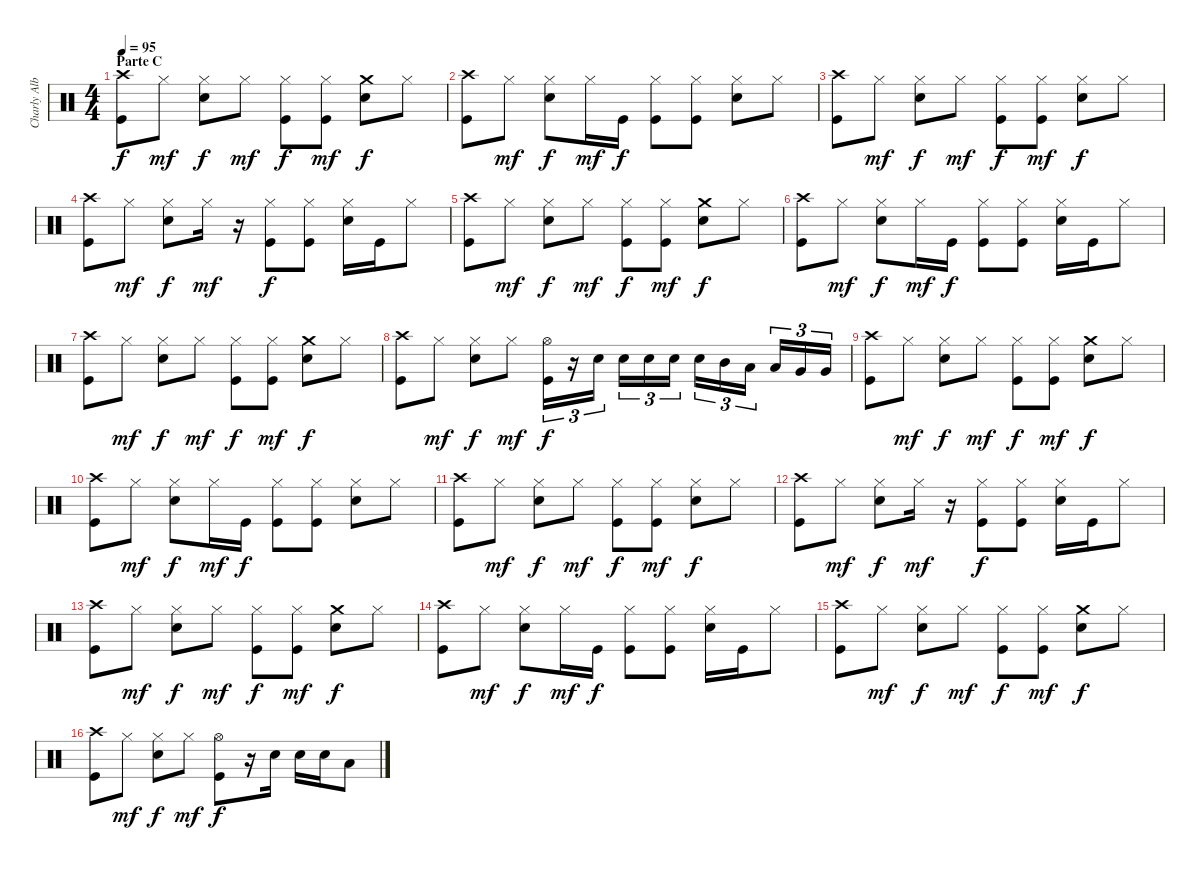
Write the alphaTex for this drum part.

\track ("Charly Alberti BATERIA" "Charly Alb") {instrument percussion}
\staff {score}
\articulation defaults
\ts (4 4)
\section ("" "Parte C")
\tempo 95
\clef neutral
\ks c
("Kick (hit)" "Crash high (hit)").8{dy f} "Hi-Hat (closed)".8{dy mf} ("Electric Snare (hit)" "Hi-Hat (closed)").8{dy f} "Hi-Hat (closed)".8{dy mf} ("Kick (hit)" "Hi-Hat (closed)").8{dy f} ("Kick (hit)" "Hi-Hat (closed)").8{dy mf} ("Electric Snare (hit)" "Crash medium (hit)").8{dy f} "Hi-Hat (closed)".8 |
("Kick (hit)" "Crash high (hit)").8 "Hi-Hat (closed)".8{dy mf} ("Electric Snare (hit)" "Hi-Hat (closed)").8{dy f} "Hi-Hat (closed)".16{dy mf} "Kick (hit)".16{dy f} ("Kick (hit)" "Hi-Hat (closed)").8 ("Kick (hit)" "Hi-Hat (closed)").8 ("Electric Snare (hit)" "Hi-Hat (closed)").8 "Hi-Hat (closed)".8 |
("Kick (hit)" "Crash high (hit)").8 "Hi-Hat (closed)".8{dy mf} ("Electric Snare (hit)" "Hi-Hat (closed)").8{dy f} "Hi-Hat (closed)".8{dy mf} ("Kick (hit)" "Hi-Hat (closed)").8{dy f} ("Kick (hit)" "Hi-Hat (closed)").8{dy mf} ("Electric Snare (hit)" "Hi-Hat (closed)").8{dy f} "Hi-Hat (closed)".8 |
("Kick (hit)" "Crash high (hit)").8 "Hi-Hat (closed)".8{dy mf} ("Electric Snare (hit)" "Hi-Hat (closed)").8{dy f} "Hi-Hat (closed)".16{dy mf} r.16 ("Kick (hit)" "Hi-Hat (closed)").8{dy f} ("Kick (hit)" "Hi-Hat (closed)").8 ("Electric Snare (hit)" "Hi-Hat (closed)").16 "Kick (hit)".16 "Hi-Hat (closed)".8 |
("Kick (hit)" "Crash high (hit)").8 "Hi-Hat (closed)".8{dy mf} ("Electric Snare (hit)" "Hi-Hat (closed)").8{dy f} "Hi-Hat (closed)".8{dy mf} ("Kick (hit)" "Hi-Hat (closed)").8{dy f} ("Kick (hit)" "Hi-Hat (closed)").8{dy mf} ("Electric Snare (hit)" "Crash medium (hit)").8{dy f} "Hi-Hat (closed)".8 |
("Kick (hit)" "Crash high (hit)").8 "Hi-Hat (closed)".8{dy mf} ("Electric Snare (hit)" "Hi-Hat (closed)").8{dy f} "Hi-Hat (closed)".16{dy mf} "Kick (hit)".16{dy f} ("Kick (hit)" "Hi-Hat (closed)").8 ("Kick (hit)" "Hi-Hat (closed)").8 ("Electric Snare (hit)" "Hi-Hat (closed)").16 "Kick (hit)".16 "Hi-Hat (closed)".8 |
("Kick (hit)" "Crash high (hit)").8 "Hi-Hat (closed)".8{dy mf} ("Electric Snare (hit)" "Hi-Hat (closed)").8{dy f} "Hi-Hat (closed)".8{dy mf} ("Kick (hit)" "Hi-Hat (closed)").8{dy f} ("Kick (hit)" "Hi-Hat (closed)").8{dy mf} ("Electric Snare (hit)" "Crash medium (hit)").8{dy f} "Hi-Hat (closed)".8 |
("Kick (hit)" "Crash high (hit)").8 "Hi-Hat (closed)".8{dy mf} ("Electric Snare (hit)" "Hi-Hat (closed)").8{dy f} "Hi-Hat (closed)".8{dy mf} ("Kick (hit)" "Hi-Hat (open)").16{tu (3 2) dy f} r.16{tu (3 2)} "Electric Snare (hit)".16{tu (3 2)} "Electric Snare (hit)".16{tu (3 2)} "Electric Snare (hit)".16{tu (3 2)} "Electric Snare (hit)".16{tu (3 2)} "Electric Snare (hit)".16{tu (3 2)} "Mid Tom (hit)".16{tu (3 2)} "Low Tom (hit)".16{tu (3 2)} "Low Tom (hit)".16{tu (3 2)} "Very Low Tom (hit)".16{tu (3 2)} "Very Low Tom (hit)".16{tu (3 2)} |
("Kick (hit)" "Crash high (hit)").8 "Hi-Hat (closed)".8{dy mf} ("Electric Snare (hit)" "Hi-Hat (closed)").8{dy f} "Hi-Hat (closed)".8{dy mf} ("Kick (hit)" "Hi-Hat (closed)").8{dy f} ("Kick (hit)" "Hi-Hat (closed)").8{dy mf} ("Electric Snare (hit)" "Crash medium (hit)").8{dy f} "Hi-Hat (closed)".8 |
("Kick (hit)" "Crash high (hit)").8 "Hi-Hat (closed)".8{dy mf} ("Electric Snare (hit)" "Hi-Hat (closed)").8{dy f} "Hi-Hat (closed)".16{dy mf} "Kick (hit)".16{dy f} ("Kick (hit)" "Hi-Hat (closed)").8 ("Kick (hit)" "Hi-Hat (closed)").8 ("Electric Snare (hit)" "Hi-Hat (closed)").8 "Hi-Hat (closed)".8 |
("Kick (hit)" "Crash high (hit)").8 "Hi-Hat (closed)".8{dy mf} ("Electric Snare (hit)" "Hi-Hat (closed)").8{dy f} "Hi-Hat (closed)".8{dy mf} ("Kick (hit)" "Hi-Hat (closed)").8{dy f} ("Kick (hit)" "Hi-Hat (closed)").8{dy mf} ("Electric Snare (hit)" "Hi-Hat (closed)").8{dy f} "Hi-Hat (closed)".8 |
("Kick (hit)" "Crash high (hit)").8 "Hi-Hat (closed)".8{dy mf} ("Electric Snare (hit)" "Hi-Hat (closed)").8{dy f} "Hi-Hat (closed)".16{dy mf} r.16 ("Kick (hit)" "Hi-Hat (closed)").8{dy f} ("Kick (hit)" "Hi-Hat (closed)").8 ("Electric Snare (hit)" "Hi-Hat (closed)").16 "Kick (hit)".16 "Hi-Hat (closed)".8 |
("Kick (hit)" "Crash high (hit)").8 "Hi-Hat (closed)".8{dy mf} ("Electric Snare (hit)" "Hi-Hat (closed)").8{dy f} "Hi-Hat (closed)".8{dy mf} ("Kick (hit)" "Hi-Hat (closed)").8{dy f} ("Kick (hit)" "Hi-Hat (closed)").8{dy mf} ("Electric Snare (hit)" "Crash medium (hit)").8{dy f} "Hi-Hat (closed)".8 |
("Kick (hit)" "Crash high (hit)").8 "Hi-Hat (closed)".8{dy mf} ("Electric Snare (hit)" "Hi-Hat (closed)").8{dy f} "Hi-Hat (closed)".16{dy mf} "Kick (hit)".16{dy f} ("Kick (hit)" "Hi-Hat (closed)").8 ("Kick (hit)" "Hi-Hat (closed)").8 ("Electric Snare (hit)" "Hi-Hat (closed)").16 "Kick (hit)".16 "Hi-Hat (closed)".8 |
("Kick (hit)" "Crash high (hit)").8 "Hi-Hat (closed)".8{dy mf} ("Electric Snare (hit)" "Hi-Hat (closed)").8{dy f} "Hi-Hat (closed)".8{dy mf} ("Kick (hit)" "Hi-Hat (closed)").8{dy f} ("Kick (hit)" "Hi-Hat (closed)").8{dy mf} ("Electric Snare (hit)" "Crash medium (hit)").8{dy f} "Hi-Hat (closed)".8 |
("Kick (hit)" "Crash high (hit)").8 "Hi-Hat (closed)".8{dy mf} ("Electric Snare (hit)" "Hi-Hat (closed)").8{dy f} "Hi-Hat (closed)".8{dy mf} ("Kick (hit)" "Hi-Hat (open)").8{dy f} r.16 "Electric Snare (hit)".16 "Electric Snare (hit)".16 "Electric Snare (hit)".16 "Low Tom (hit)".8
